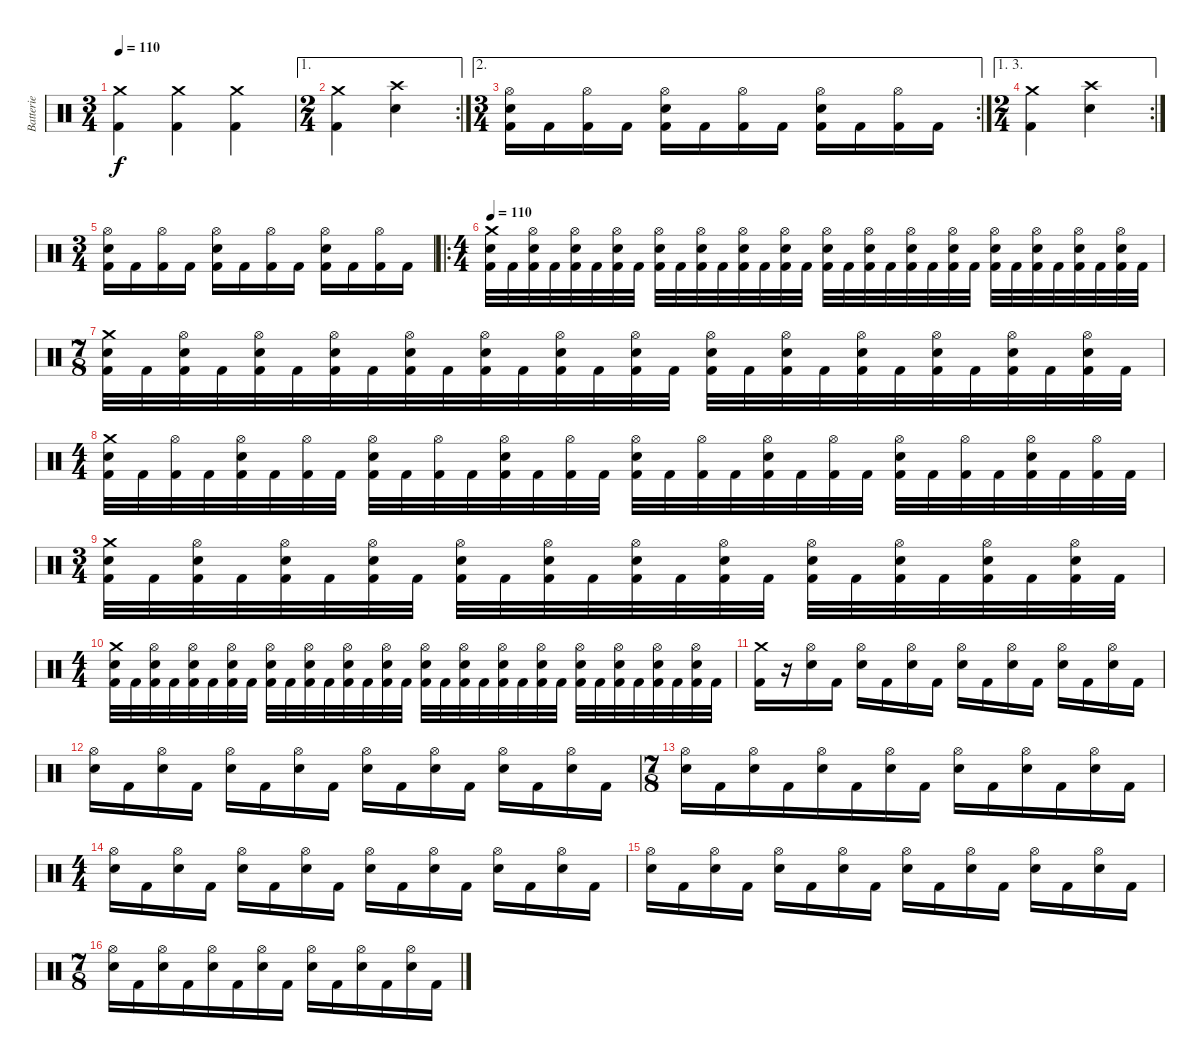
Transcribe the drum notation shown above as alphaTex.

\track ("Batterie" "Batterie") {instrument percussion}
\staff {score}
\articulation defaults
\ts (3 4)
\tempo 110
\tempo 210
\tempo 110
\clef neutral
\ks c
("Crash medium (hit)" "Kick (hit) 2").4{dy f} ("Crash medium (hit)" "Kick (hit) 2").4 ("Crash medium (hit)" "Kick (hit) 2").4 |
\ae 1
\rc 2
\ts (2 4)
("Crash medium (hit)" "Kick (hit) 2").4 ("Crash high (hit)" "Electric Snare (hit)").4 |
\ae 2
\rc 2
\ts (3 4)
("Hi-Hat (open)" "Electric Snare (hit)" "Kick (hit) 2").16 "Kick (hit) 2".16 ("Hi-Hat (open)" "Kick (hit) 2").16 "Kick (hit) 2".16 ("Hi-Hat (open)" "Electric Snare (hit)" "Kick (hit) 2").16 "Kick (hit) 2".16 ("Hi-Hat (open)" "Kick (hit) 2").16 "Kick (hit) 2".16 ("Hi-Hat (open)" "Electric Snare (hit)" "Kick (hit) 2").16 "Kick (hit) 2".16 ("Hi-Hat (open)" "Kick (hit) 2").16 "Kick (hit) 2".16 |
\ae (1 3)
\rc 2
\ts (2 4)
("Crash medium (hit)" "Kick (hit) 2").4 ("Crash high (hit)" "Electric Snare (hit)").4 |
\ts (3 4)
("Hi-Hat (open)" "Electric Snare (hit)" "Kick (hit) 2").16 "Kick (hit) 2".16 ("Hi-Hat (open)" "Kick (hit) 2").16 "Kick (hit) 2".16 ("Hi-Hat (open)" "Electric Snare (hit)" "Kick (hit) 2").16 "Kick (hit) 2".16 ("Hi-Hat (open)" "Kick (hit) 2").16 "Kick (hit) 2".16 ("Hi-Hat (open)" "Electric Snare (hit)" "Kick (hit) 2").16 "Kick (hit) 2".16 ("Hi-Hat (open)" "Kick (hit) 2").16 "Kick (hit) 2".16 |
\ro
\ts (4 4)
\tempo 110
("Crash medium (hit)" "Electric Snare (hit)" "Kick (hit) 2").32 "Kick (hit) 2".32 ("Hi-Hat (open)" "Electric Snare (hit)" "Kick (hit) 2").32 "Kick (hit) 2".32 ("Hi-Hat (open)" "Electric Snare (hit)" "Kick (hit) 2").32 "Kick (hit) 2".32 ("Hi-Hat (open)" "Electric Snare (hit)" "Kick (hit) 2").32 "Kick (hit) 2".32 ("Hi-Hat (open)" "Electric Snare (hit)" "Kick (hit) 2").32 "Kick (hit) 2".32 ("Hi-Hat (open)" "Electric Snare (hit)" "Kick (hit) 2").32 "Kick (hit) 2".32 ("Hi-Hat (open)" "Electric Snare (hit)" "Kick (hit) 2").32 "Kick (hit) 2".32 ("Hi-Hat (open)" "Electric Snare (hit)" "Kick (hit) 2").32 "Kick (hit) 2".32 ("Hi-Hat (open)" "Electric Snare (hit)" "Kick (hit) 2").32 "Kick (hit) 2".32 ("Hi-Hat (open)" "Electric Snare (hit)" "Kick (hit) 2").32 "Kick (hit) 2".32 ("Hi-Hat (open)" "Electric Snare (hit)" "Kick (hit) 2").32 "Kick (hit) 2".32 ("Hi-Hat (open)" "Electric Snare (hit)" "Kick (hit) 2").32 "Kick (hit) 2".32 ("Hi-Hat (open)" "Electric Snare (hit)" "Kick (hit) 2").32 "Kick (hit) 2".32 ("Hi-Hat (open)" "Electric Snare (hit)" "Kick (hit) 2").32 "Kick (hit) 2".32 ("Hi-Hat (open)" "Electric Snare (hit)" "Kick (hit) 2").32 "Kick (hit) 2".32 ("Hi-Hat (open)" "Electric Snare (hit)" "Kick (hit) 2").32 "Kick (hit) 2".32 |
\ts (7 8)
("Crash medium (hit)" "Electric Snare (hit)" "Kick (hit) 2").32 "Kick (hit) 2".32 ("Hi-Hat (open)" "Electric Snare (hit)" "Kick (hit) 2").32 "Kick (hit) 2".32 ("Hi-Hat (open)" "Electric Snare (hit)" "Kick (hit) 2").32 "Kick (hit) 2".32 ("Hi-Hat (open)" "Electric Snare (hit)" "Kick (hit) 2").32 "Kick (hit) 2".32 ("Hi-Hat (open)" "Electric Snare (hit)" "Kick (hit) 2").32 "Kick (hit) 2".32 ("Hi-Hat (open)" "Electric Snare (hit)" "Kick (hit) 2").32 "Kick (hit) 2".32 ("Hi-Hat (open)" "Electric Snare (hit)" "Kick (hit) 2").32 "Kick (hit) 2".32 ("Hi-Hat (open)" "Electric Snare (hit)" "Kick (hit) 2").32 "Kick (hit) 2".32 ("Hi-Hat (open)" "Electric Snare (hit)" "Kick (hit) 2").32 "Kick (hit) 2".32 ("Hi-Hat (open)" "Electric Snare (hit)" "Kick (hit) 2").32 "Kick (hit) 2".32 ("Hi-Hat (open)" "Electric Snare (hit)" "Kick (hit) 2").32 "Kick (hit) 2".32 ("Hi-Hat (open)" "Electric Snare (hit)" "Kick (hit) 2").32 "Kick (hit) 2".32 ("Hi-Hat (open)" "Electric Snare (hit)" "Kick (hit) 2").32 "Kick (hit) 2".32 ("Hi-Hat (open)" "Electric Snare (hit)" "Kick (hit) 2").32 "Kick (hit) 2".32 |
\ts (4 4)
("Crash medium (hit)" "Electric Snare (hit)" "Kick (hit) 2").32 "Kick (hit) 2".32 ("Hi-Hat (open)" "Kick (hit) 2").32 "Kick (hit) 2".32 ("Hi-Hat (open)" "Electric Snare (hit)" "Kick (hit) 2").32 "Kick (hit) 2".32 ("Hi-Hat (open)" "Kick (hit) 2").32 "Kick (hit) 2".32 ("Hi-Hat (open)" "Electric Snare (hit)" "Kick (hit) 2").32 "Kick (hit) 2".32 ("Hi-Hat (open)" "Kick (hit) 2").32 "Kick (hit) 2".32 ("Hi-Hat (open)" "Electric Snare (hit)" "Kick (hit) 2").32 "Kick (hit) 2".32 ("Hi-Hat (open)" "Kick (hit) 2").32 "Kick (hit) 2".32 ("Hi-Hat (open)" "Electric Snare (hit)" "Kick (hit) 2").32 "Kick (hit) 2".32 ("Hi-Hat (open)" "Kick (hit) 2").32 "Kick (hit) 2".32 ("Hi-Hat (open)" "Electric Snare (hit)" "Kick (hit) 2").32 "Kick (hit) 2".32 ("Hi-Hat (open)" "Kick (hit) 2").32 "Kick (hit) 2".32 ("Hi-Hat (open)" "Electric Snare (hit)" "Kick (hit) 2").32 "Kick (hit) 2".32 ("Hi-Hat (open)" "Kick (hit) 2").32 "Kick (hit) 2".32 ("Hi-Hat (open)" "Electric Snare (hit)" "Kick (hit) 2").32 "Kick (hit) 2".32 ("Hi-Hat (open)" "Kick (hit) 2").32 "Kick (hit) 2".32 |
\ts (3 4)
("Crash medium (hit)" "Electric Snare (hit)" "Kick (hit) 2").32 "Kick (hit) 2".32 ("Hi-Hat (open)" "Electric Snare (hit)" "Kick (hit) 2").32 "Kick (hit) 2".32 ("Hi-Hat (open)" "Electric Snare (hit)" "Kick (hit) 2").32 "Kick (hit) 2".32 ("Hi-Hat (open)" "Electric Snare (hit)" "Kick (hit) 2").32 "Kick (hit) 2".32 ("Hi-Hat (open)" "Electric Snare (hit)" "Kick (hit) 2").32 "Kick (hit) 2".32 ("Hi-Hat (open)" "Electric Snare (hit)" "Kick (hit) 2").32 "Kick (hit) 2".32 ("Hi-Hat (open)" "Electric Snare (hit)" "Kick (hit) 2").32 "Kick (hit) 2".32 ("Hi-Hat (open)" "Electric Snare (hit)" "Kick (hit) 2").32 "Kick (hit) 2".32 ("Hi-Hat (open)" "Electric Snare (hit)" "Kick (hit) 2").32 "Kick (hit) 2".32 ("Hi-Hat (open)" "Electric Snare (hit)" "Kick (hit) 2").32 "Kick (hit) 2".32 ("Hi-Hat (open)" "Electric Snare (hit)" "Kick (hit) 2").32 "Kick (hit) 2".32 ("Hi-Hat (open)" "Electric Snare (hit)" "Kick (hit) 2").32 "Kick (hit) 2".32 |
\ts (4 4)
("Crash medium (hit)" "Electric Snare (hit)" "Kick (hit) 2").32 "Kick (hit) 2".32 ("Hi-Hat (open)" "Electric Snare (hit)" "Kick (hit) 2").32 "Kick (hit) 2".32 ("Hi-Hat (open)" "Electric Snare (hit)" "Kick (hit) 2").32 "Kick (hit) 2".32 ("Hi-Hat (open)" "Electric Snare (hit)" "Kick (hit) 2").32 "Kick (hit) 2".32 ("Hi-Hat (open)" "Electric Snare (hit)" "Kick (hit) 2").32 "Kick (hit) 2".32 ("Hi-Hat (open)" "Electric Snare (hit)" "Kick (hit) 2").32 "Kick (hit) 2".32 ("Hi-Hat (open)" "Electric Snare (hit)" "Kick (hit) 2").32 "Kick (hit) 2".32 ("Hi-Hat (open)" "Electric Snare (hit)" "Kick (hit) 2").32 "Kick (hit) 2".32 ("Hi-Hat (open)" "Electric Snare (hit)" "Kick (hit) 2").32 "Kick (hit) 2".32 ("Hi-Hat (open)" "Electric Snare (hit)" "Kick (hit) 2").32 "Kick (hit) 2".32 ("Hi-Hat (open)" "Electric Snare (hit)" "Kick (hit) 2").32 "Kick (hit) 2".32 ("Hi-Hat (open)" "Electric Snare (hit)" "Kick (hit) 2").32 "Kick (hit) 2".32 ("Hi-Hat (open)" "Electric Snare (hit)" "Kick (hit) 2").32 "Kick (hit) 2".32 ("Hi-Hat (open)" "Electric Snare (hit)" "Kick (hit) 2").32 "Kick (hit) 2".32 ("Hi-Hat (open)" "Electric Snare (hit)" "Kick (hit) 2").32 "Kick (hit) 2".32 ("Hi-Hat (open)" "Electric Snare (hit)" "Kick (hit) 2").32 "Kick (hit) 2".32 |
("Crash medium (hit)" "Kick (hit) 2").16 r.16 ("Hi-Hat (open)" "Electric Snare (hit)").16 "Kick (hit) 2".16 ("Hi-Hat (open)" "Electric Snare (hit)").16 "Kick (hit) 2".16 ("Hi-Hat (open)" "Electric Snare (hit)").16 "Kick (hit) 2".16 ("Hi-Hat (open)" "Electric Snare (hit)").16 "Kick (hit) 2".16 ("Hi-Hat (open)" "Electric Snare (hit)").16 "Kick (hit) 2".16 ("Hi-Hat (open)" "Electric Snare (hit)").16 "Kick (hit) 2".16 ("Hi-Hat (open)" "Electric Snare (hit)").16 "Kick (hit) 2".16 |
("Hi-Hat (open)" "Electric Snare (hit)").16 "Kick (hit) 2".16 ("Hi-Hat (open)" "Electric Snare (hit)").16 "Kick (hit) 2".16 ("Hi-Hat (open)" "Electric Snare (hit)").16 "Kick (hit) 2".16 ("Hi-Hat (open)" "Electric Snare (hit)").16 "Kick (hit) 2".16 ("Hi-Hat (open)" "Electric Snare (hit)").16 "Kick (hit) 2".16 ("Hi-Hat (open)" "Electric Snare (hit)").16 "Kick (hit) 2".16 ("Hi-Hat (open)" "Electric Snare (hit)").16 "Kick (hit) 2".16 ("Hi-Hat (open)" "Electric Snare (hit)").16 "Kick (hit) 2".16 |
\ts (7 8)
("Hi-Hat (open)" "Electric Snare (hit)").16 "Kick (hit) 2".16 ("Hi-Hat (open)" "Electric Snare (hit)").16 "Kick (hit) 2".16 ("Hi-Hat (open)" "Electric Snare (hit)").16 "Kick (hit) 2".16 ("Hi-Hat (open)" "Electric Snare (hit)").16 "Kick (hit) 2".16 ("Hi-Hat (open)" "Electric Snare (hit)").16 "Kick (hit) 2".16 ("Hi-Hat (open)" "Electric Snare (hit)").16 "Kick (hit) 2".16 ("Hi-Hat (open)" "Electric Snare (hit)").16 "Kick (hit) 2".16 |
\ts (4 4)
("Hi-Hat (open)" "Electric Snare (hit)").16 "Kick (hit) 2".16 ("Hi-Hat (open)" "Electric Snare (hit)").16 "Kick (hit) 2".16 ("Hi-Hat (open)" "Electric Snare (hit)").16 "Kick (hit) 2".16 ("Hi-Hat (open)" "Electric Snare (hit)").16 "Kick (hit) 2".16 ("Hi-Hat (open)" "Electric Snare (hit)").16 "Kick (hit) 2".16 ("Hi-Hat (open)" "Electric Snare (hit)").16 "Kick (hit) 2".16 ("Hi-Hat (open)" "Electric Snare (hit)").16 "Kick (hit) 2".16 ("Hi-Hat (open)" "Electric Snare (hit)").16 "Kick (hit) 2".16 |
("Hi-Hat (open)" "Electric Snare (hit)").16 "Kick (hit) 2".16 ("Hi-Hat (open)" "Electric Snare (hit)").16 "Kick (hit) 2".16 ("Hi-Hat (open)" "Electric Snare (hit)").16 "Kick (hit) 2".16 ("Hi-Hat (open)" "Electric Snare (hit)").16 "Kick (hit) 2".16 ("Hi-Hat (open)" "Electric Snare (hit)").16 "Kick (hit) 2".16 ("Hi-Hat (open)" "Electric Snare (hit)").16 "Kick (hit) 2".16 ("Hi-Hat (open)" "Electric Snare (hit)").16 "Kick (hit) 2".16 ("Hi-Hat (open)" "Electric Snare (hit)").16 "Kick (hit) 2".16 |
\ts (7 8)
("Hi-Hat (open)" "Electric Snare (hit)").16 "Kick (hit) 2".16 ("Hi-Hat (open)" "Electric Snare (hit)").16 "Kick (hit) 2".16 ("Hi-Hat (open)" "Electric Snare (hit)").16 "Kick (hit) 2".16 ("Hi-Hat (open)" "Electric Snare (hit)").16 "Kick (hit) 2".16 ("Hi-Hat (open)" "Electric Snare (hit)").16 "Kick (hit) 2".16 ("Hi-Hat (open)" "Electric Snare (hit)").16 "Kick (hit) 2".16 ("Hi-Hat (open)" "Electric Snare (hit)").16 "Kick (hit) 2".16
